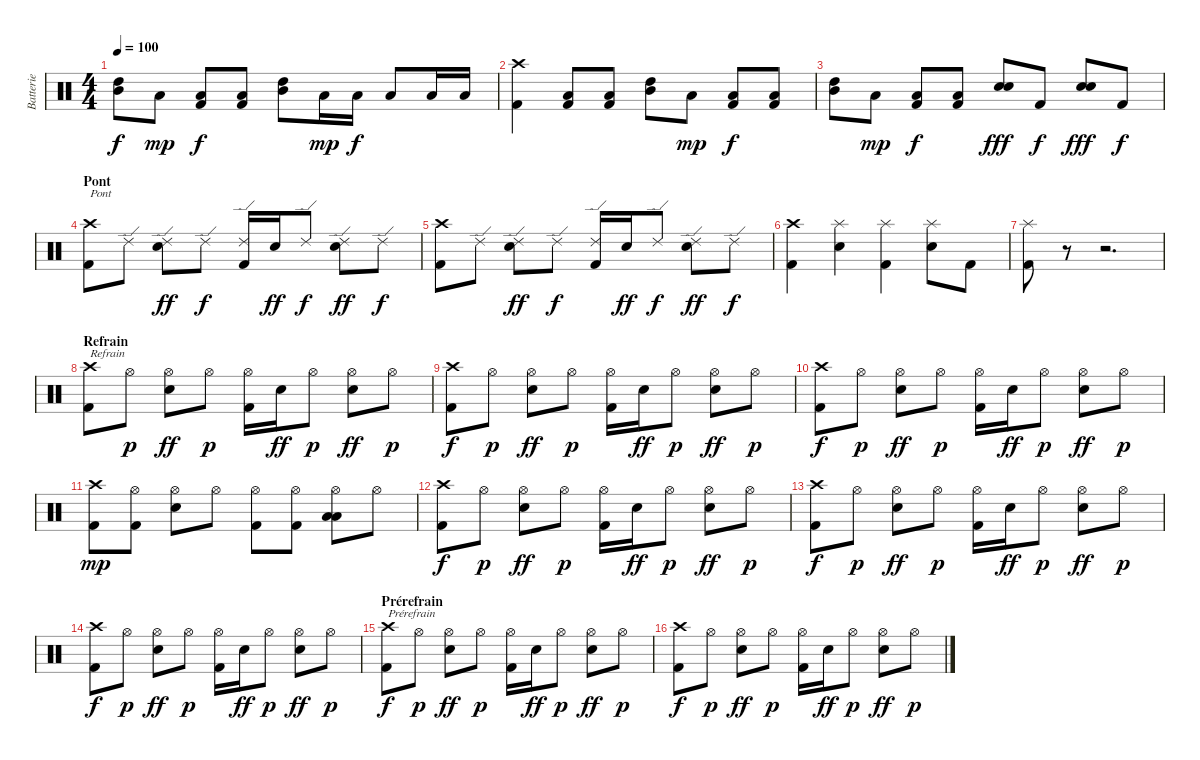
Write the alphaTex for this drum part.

\track ("Batterie" "Batterie") {instrument percussion}
\staff {score}
\articulation defaults
\ts (4 4)
\tempo 100
\clef neutral
\ks c
("High Tom (hit)" "Mid Tom (hit)").8{dy f} "Low Tom (hit)".8{dy mp} ("Low Floor Tom (hit)" "Kick (hit) 2").8{dy f} ("Low Floor Tom (hit)" "Kick (hit) 2").8 ("High Tom (hit)" "Mid Tom (hit)").8 "Low Tom (hit)".16{dy mp} "Low Tom (hit)".16{dy f} "Low Tom (hit)".8 "Low Tom (hit)".16 "Low Tom (hit)".16 |
("Crash high (hit)" "Kick (hit) 2").4 ("Low Floor Tom (hit)" "Kick (hit) 2").8 ("Low Floor Tom (hit)" "Kick (hit) 2").8 ("High Tom (hit)" "Mid Tom (hit)").8 "Low Tom (hit)".8{dy mp} ("Low Floor Tom (hit)" "Kick (hit) 2").8{dy f} ("Low Floor Tom (hit)" "Kick (hit) 2").8 |
("High Tom (hit)" "Mid Tom (hit)").8 "Low Tom (hit)".8{dy mp} ("Low Floor Tom (hit)" "Kick (hit) 2").8{dy f} ("Low Floor Tom (hit)" "Kick (hit) 2").8 ("Electric Snare (hit)" "Electric Snare (hit)").8{dy fff} "Kick (hit) 2".8{dy f} ("Electric Snare (hit)" "Electric Snare (hit)").8{dy fff} "Kick (hit) 2".8{dy f} |
\section ("" "Pont")
("Crash high (hit)" "Kick (hit) 2").8{txt "Pont"} "Ride (edge) 2".8 ("Ride (edge) 2" "Electric Snare (hit)").8{dy ff} "Ride (edge) 2".8{dy f} ("Ride (edge) 2" "Kick (hit) 2").16 "Electric Snare (hit)".16{dy ff} "Ride (edge) 2".8{dy f} ("Ride (edge) 2" "Electric Snare (hit)").8{dy ff} "Ride (edge) 2".8{dy f} |
("Crash high (hit)" "Kick (hit) 2").8 "Ride (edge) 2".8 ("Ride (edge) 2" "Electric Snare (hit)").8{dy ff} "Ride (edge) 2".8{dy f} ("Ride (edge) 2" "Kick (hit) 2").16 "Electric Snare (hit)".16{dy ff} "Ride (edge) 2".8{dy f} ("Ride (edge) 2" "Electric Snare (hit)").8{dy ff} "Ride (edge) 2".8{dy f} |
("Crash high (hit)" "Kick (hit) 2").4 ("Splash (hit)" "Electric Snare (hit)").4 ("Splash (hit)" "Kick (hit) 2").4 ("Splash (hit)" "Electric Snare (hit)").8 "Kick (hit) 2".8 |
("Splash (hit)" "Kick (hit) 2").8 r.8 r.2{d} |
\section ("" "Refrain")
("Crash high (hit)" "Kick (hit) 2").8{txt "Refrain"} "Hi-Hat (open)".8{dy p} ("Hi-Hat (open)" "Electric Snare (hit)").8{dy ff} "Hi-Hat (open)".8{dy p} ("Hi-Hat (open)" "Kick (hit) 2").16 "Electric Snare (hit)".16{dy ff} "Hi-Hat (open)".8{dy p} ("Hi-Hat (open)" "Electric Snare (hit)").8{dy ff} "Hi-Hat (open)".8{dy p} |
("Crash high (hit)" "Kick (hit) 2").8{dy f} "Hi-Hat (open)".8{dy p} ("Hi-Hat (open)" "Electric Snare (hit)").8{dy ff} "Hi-Hat (open)".8{dy p} ("Hi-Hat (open)" "Kick (hit) 2").16 "Electric Snare (hit)".16{dy ff} "Hi-Hat (open)".8{dy p} ("Hi-Hat (open)" "Electric Snare (hit)").8{dy ff} "Hi-Hat (open)".8{dy p} |
("Crash high (hit)" "Kick (hit) 2").8{dy f} "Hi-Hat (open)".8{dy p} ("Hi-Hat (open)" "Electric Snare (hit)").8{dy ff} "Hi-Hat (open)".8{dy p} ("Hi-Hat (open)" "Kick (hit) 2").16 "Electric Snare (hit)".16{dy ff} "Hi-Hat (open)".8{dy p} ("Hi-Hat (open)" "Electric Snare (hit)").8{dy ff} "Hi-Hat (open)".8{dy p} |
("Crash high (hit)" "Kick (hit) 2").8{dy mp} ("Hi-Hat (open)" "Kick (hit) 2").8 ("Hi-Hat (open)" "Electric Snare (hit)").8 "Hi-Hat (open)".8 ("Hi-Hat (open)" "Kick (hit) 2").8 ("Hi-Hat (open)" "Kick (hit) 2").8 ("Hi-Hat (open)" "Low Floor Tom (hit)" "Low Tom (hit)").8 "Hi-Hat (open)".8 |
("Crash high (hit)" "Kick (hit) 2").8{dy f} "Hi-Hat (open)".8{dy p} ("Hi-Hat (open)" "Electric Snare (hit)").8{dy ff} "Hi-Hat (open)".8{dy p} ("Hi-Hat (open)" "Kick (hit) 2").16 "Electric Snare (hit)".16{dy ff} "Hi-Hat (open)".8{dy p} ("Hi-Hat (open)" "Electric Snare (hit)").8{dy ff} "Hi-Hat (open)".8{dy p} |
("Crash high (hit)" "Kick (hit) 2").8{dy f} "Hi-Hat (open)".8{dy p} ("Hi-Hat (open)" "Electric Snare (hit)").8{dy ff} "Hi-Hat (open)".8{dy p} ("Hi-Hat (open)" "Kick (hit) 2").16 "Electric Snare (hit)".16{dy ff} "Hi-Hat (open)".8{dy p} ("Hi-Hat (open)" "Electric Snare (hit)").8{dy ff} "Hi-Hat (open)".8{dy p} |
("Crash high (hit)" "Kick (hit) 2").8{dy f} "Hi-Hat (open)".8{dy p} ("Hi-Hat (open)" "Electric Snare (hit)").8{dy ff} "Hi-Hat (open)".8{dy p} ("Hi-Hat (open)" "Kick (hit) 2").16 "Electric Snare (hit)".16{dy ff} "Hi-Hat (open)".8{dy p} ("Hi-Hat (open)" "Electric Snare (hit)").8{dy ff} "Hi-Hat (open)".8{dy p} |
\section ("" "Prérefrain")
("Crash high (hit)" "Kick (hit) 2").8{txt "Prérefrain" dy f} "Hi-Hat (open)".8{dy p} ("Hi-Hat (open)" "Electric Snare (hit)").8{dy ff} "Hi-Hat (open)".8{dy p} ("Hi-Hat (open)" "Kick (hit) 2").16 "Electric Snare (hit)".16{dy ff} "Hi-Hat (open)".8{dy p} ("Hi-Hat (open)" "Electric Snare (hit)").8{dy ff} "Hi-Hat (open)".8{dy p} |
("Crash high (hit)" "Kick (hit) 2").8{dy f} "Hi-Hat (open)".8{dy p} ("Hi-Hat (open)" "Electric Snare (hit)").8{dy ff} "Hi-Hat (open)".8{dy p} ("Hi-Hat (open)" "Kick (hit) 2").16 "Electric Snare (hit)".16{dy ff} "Hi-Hat (open)".8{dy p} ("Hi-Hat (open)" "Electric Snare (hit)").8{dy ff} "Hi-Hat (open)".8{dy p}
